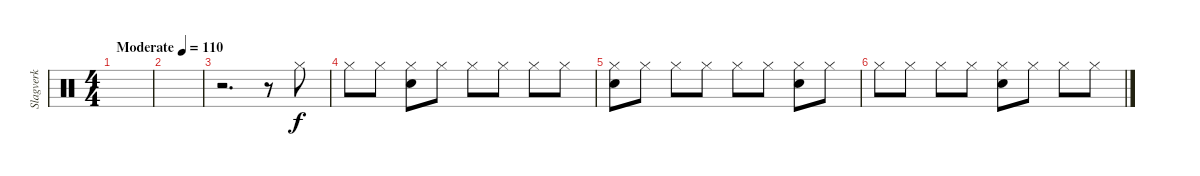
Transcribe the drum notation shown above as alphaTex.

\track ("Slagverk" "Slagverk") {instrument percussion}
\staff {score}
\articulation defaults
\ts (4 4)
\tempo (110 "Moderate")
\clef neutral
\ks c
|
|
r.2{d} r.8 "Hi-Hat (closed)".8 |
"Hi-Hat (closed)".8 "Hi-Hat (closed)".8 ("Snare (hit) 2" "Hi-Hat (closed)").8 "Hi-Hat (closed)".8 "Hi-Hat (closed)".8 "Hi-Hat (closed)".8 "Hi-Hat (closed)".8 "Hi-Hat (closed)".8 |
("Snare (hit) 2" "Hi-Hat (closed)").8 "Hi-Hat (closed)".8 "Hi-Hat (closed)".8 "Hi-Hat (closed)".8 "Hi-Hat (closed)".8 "Hi-Hat (closed)".8 ("Snare (hit) 2" "Hi-Hat (closed)").8 "Hi-Hat (closed)".8 |
"Hi-Hat (closed)".8 "Hi-Hat (closed)".8 "Hi-Hat (closed)".8 "Hi-Hat (closed)".8 ("Snare (hit) 2" "Hi-Hat (closed)").8 "Hi-Hat (closed)".8 "Hi-Hat (closed)".8 "Hi-Hat (closed)".8
